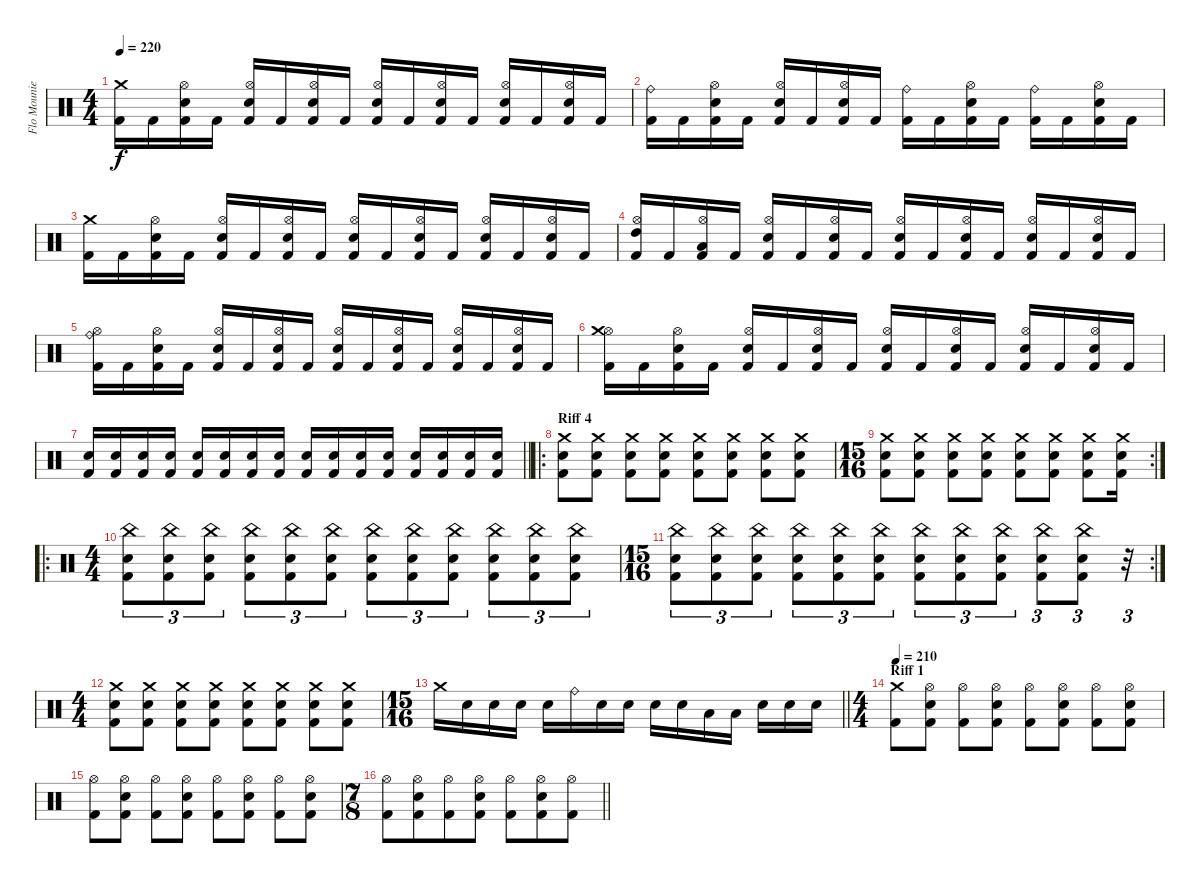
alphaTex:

\track ("Flo Mounier" "Flo Mounie") {instrument percussion}
\staff {score}
\articulation defaults
\ts (4 4)
\tempo 220
\clef neutral
\ks c
("Crash medium (hit)" "Kick (hit) 2").16{dy f} "Kick (hit) 2".16 ("Hi-Hat (open)" "Snare (hit) 2" "Kick (hit) 2").16 "Kick (hit) 2".16 ("Hi-Hat (open)" "Snare (hit) 2" "Kick (hit) 2").16 "Kick (hit) 2".16 ("Hi-Hat (open)" "Snare (hit) 2" "Kick (hit) 2").16 "Kick (hit) 2".16 ("Hi-Hat (open)" "Snare (hit) 2" "Kick (hit) 2").16 "Kick (hit) 2".16 ("Hi-Hat (open)" "Snare (hit) 2" "Kick (hit) 2").16 "Kick (hit) 2".16 ("Hi-Hat (open)" "Snare (hit) 2" "Kick (hit) 2").16 "Kick (hit) 2".16 ("Hi-Hat (open)" "Snare (hit) 2" "Kick (hit) 2").16 "Kick (hit) 2".16 |
("Ride (bell)" "Kick (hit) 2").16 "Kick (hit) 2".16 ("Hi-Hat (open)" "Snare (hit) 2" "Kick (hit) 2").16 "Kick (hit) 2".16 ("Hi-Hat (open)" "Snare (hit) 2" "Kick (hit) 2").16 "Kick (hit) 2".16 ("Hi-Hat (open)" "Snare (hit) 2" "Kick (hit) 2").16 "Kick (hit) 2".16 ("Ride (bell)" "Kick (hit) 2").16 "Kick (hit) 2".16 ("Hi-Hat (open)" "Snare (hit) 2" "Kick (hit) 2").16 "Kick (hit) 2".16 ("Ride (bell)" "Kick (hit) 2").16 "Kick (hit) 2".16 ("Hi-Hat (open)" "Snare (hit) 2" "Kick (hit) 2").16 "Kick (hit) 2".16 |
("Crash medium (hit)" "Kick (hit) 2").16 "Kick (hit) 2".16 ("Hi-Hat (open)" "Snare (hit) 2" "Kick (hit) 2").16 "Kick (hit) 2".16 ("Hi-Hat (open)" "Snare (hit) 2" "Kick (hit) 2").16 "Kick (hit) 2".16 ("Hi-Hat (open)" "Snare (hit) 2" "Kick (hit) 2").16 "Kick (hit) 2".16 ("Hi-Hat (open)" "Snare (hit) 2" "Kick (hit) 2").16 "Kick (hit) 2".16 ("Hi-Hat (open)" "Snare (hit) 2" "Kick (hit) 2").16 "Kick (hit) 2".16 ("Hi-Hat (open)" "Snare (hit) 2" "Kick (hit) 2").16 "Kick (hit) 2".16 ("Hi-Hat (open)" "Snare (hit) 2" "Kick (hit) 2").16 "Kick (hit) 2".16 |
("Hi-Hat (open)" "High Tom (hit)" "Kick (hit) 2").16 "Kick (hit) 2".16 ("Hi-Hat (open)" "Low Tom (hit)" "Kick (hit) 2").16 "Kick (hit) 2".16 ("Hi-Hat (open)" "Snare (hit) 2" "Kick (hit) 2").16 "Kick (hit) 2".16 ("Hi-Hat (open)" "Snare (hit) 2" "Kick (hit) 2").16 "Kick (hit) 2".16 ("Hi-Hat (open)" "Snare (hit) 2" "Kick (hit) 2").16 "Kick (hit) 2".16 ("Hi-Hat (open)" "Snare (hit) 2" "Kick (hit) 2").16 "Kick (hit) 2".16 ("Hi-Hat (open)" "Snare (hit) 2" "Kick (hit) 2").16 "Kick (hit) 2".16 ("Hi-Hat (open)" "Snare (hit) 2" "Kick (hit) 2").16 "Kick (hit) 2".16 |
("Hi-Hat (open)" "Ride (bell)" "Kick (hit) 2").16 "Kick (hit) 2".16 ("Hi-Hat (open)" "Snare (hit) 2" "Kick (hit) 2").16 "Kick (hit) 2".16 ("Hi-Hat (open)" "Snare (hit) 2" "Kick (hit) 2").16 "Kick (hit) 2".16 ("Hi-Hat (open)" "Snare (hit) 2" "Kick (hit) 2").16 "Kick (hit) 2".16 ("Hi-Hat (open)" "Snare (hit) 2" "Kick (hit) 2").16 "Kick (hit) 2".16 ("Hi-Hat (open)" "Snare (hit) 2" "Kick (hit) 2").16 "Kick (hit) 2".16 ("Hi-Hat (open)" "Snare (hit) 2" "Kick (hit) 2").16 "Kick (hit) 2".16 ("Hi-Hat (open)" "Snare (hit) 2" "Kick (hit) 2").16 "Kick (hit) 2".16 |
("Hi-Hat (open)" "Crash medium (hit)" "Kick (hit) 2").16 "Kick (hit) 2".16 ("Hi-Hat (open)" "Snare (hit) 2" "Kick (hit) 2").16 "Kick (hit) 2".16 ("Hi-Hat (open)" "Snare (hit) 2" "Kick (hit) 2").16 "Kick (hit) 2".16 ("Hi-Hat (open)" "Snare (hit) 2" "Kick (hit) 2").16 "Kick (hit) 2".16 ("Hi-Hat (open)" "Snare (hit) 2" "Kick (hit) 2").16 "Kick (hit) 2".16 ("Hi-Hat (open)" "Snare (hit) 2" "Kick (hit) 2").16 "Kick (hit) 2".16 ("Hi-Hat (open)" "Snare (hit) 2" "Kick (hit) 2").16 "Kick (hit) 2".16 ("Hi-Hat (open)" "Snare (hit) 2" "Kick (hit) 2").16 "Kick (hit) 2".16 |
\barLineRight lightlight
("Snare (hit) 2" "Kick (hit) 2").16 ("Snare (hit) 2" "Kick (hit) 2").16 ("Snare (hit) 2" "Kick (hit) 2").16 ("Snare (hit) 2" "Kick (hit) 2").16 ("Snare (hit) 2" "Kick (hit) 2").16 ("Snare (hit) 2" "Kick (hit) 2").16 ("Snare (hit) 2" "Kick (hit) 2").16 ("Snare (hit) 2" "Kick (hit) 2").16 ("Snare (hit) 2" "Kick (hit) 2").16 ("Snare (hit) 2" "Kick (hit) 2").16 ("Snare (hit) 2" "Kick (hit) 2").16 ("Snare (hit) 2" "Kick (hit) 2").16 ("Snare (hit) 2" "Kick (hit) 2").16 ("Snare (hit) 2" "Kick (hit) 2").16 ("Snare (hit) 2" "Kick (hit) 2").16 ("Snare (hit) 2" "Kick (hit) 2").16 |
\ro
\section ("" "Riff 4")
("Crash medium (hit)" "Snare (hit) 2" "Kick (hit) 2").8 ("Crash medium (hit)" "Snare (hit) 2" "Kick (hit) 2").8 ("Crash medium (hit)" "Snare (hit) 2" "Kick (hit) 2").8 ("Crash medium (hit)" "Snare (hit) 2" "Kick (hit) 2").8 ("Crash medium (hit)" "Snare (hit) 2" "Kick (hit) 2").8 ("Crash medium (hit)" "Snare (hit) 2" "Kick (hit) 2").8 ("Crash medium (hit)" "Snare (hit) 2" "Kick (hit) 2").8 ("Crash medium (hit)" "Snare (hit) 2" "Kick (hit) 2").8 |
\rc 2
\ts (15 16)
("Crash medium (hit)" "Snare (hit) 2" "Kick (hit) 2").8 ("Crash medium (hit)" "Snare (hit) 2" "Kick (hit) 2").8 ("Crash medium (hit)" "Snare (hit) 2" "Kick (hit) 2").8 ("Crash medium (hit)" "Snare (hit) 2" "Kick (hit) 2").8 ("Crash medium (hit)" "Snare (hit) 2" "Kick (hit) 2").8 ("Crash medium (hit)" "Snare (hit) 2" "Kick (hit) 2").8 ("Crash medium (hit)" "Snare (hit) 2" "Kick (hit) 2").8 ("Crash medium (hit)" "Snare (hit) 2" "Kick (hit) 2").16 |
\ro
\ts (4 4)
("China (hit)" "Snare (hit) 2" "Kick (hit) 2").8{tu (3 2)} ("China (hit)" "Snare (hit) 2" "Kick (hit) 2").8{tu (3 2)} ("China (hit)" "Snare (hit) 2" "Kick (hit) 2").8{tu (3 2)} ("China (hit)" "Snare (hit) 2" "Kick (hit) 2").8{tu (3 2)} ("China (hit)" "Snare (hit) 2" "Kick (hit) 2").8{tu (3 2)} ("China (hit)" "Snare (hit) 2" "Kick (hit) 2").8{tu (3 2)} ("China (hit)" "Snare (hit) 2" "Kick (hit) 2").8{tu (3 2)} ("China (hit)" "Snare (hit) 2" "Kick (hit) 2").8{tu (3 2)} ("China (hit)" "Snare (hit) 2" "Kick (hit) 2").8{tu (3 2)} ("China (hit)" "Snare (hit) 2" "Kick (hit) 2").8{tu (3 2)} ("China (hit)" "Snare (hit) 2" "Kick (hit) 2").8{tu (3 2)} ("China (hit)" "Snare (hit) 2" "Kick (hit) 2").8{tu (3 2)} |
\rc 2
\ts (15 16)
("China (hit)" "Snare (hit) 2" "Kick (hit) 2").8{tu (3 2)} ("China (hit)" "Snare (hit) 2" "Kick (hit) 2").8{tu (3 2)} ("China (hit)" "Snare (hit) 2" "Kick (hit) 2").8{tu (3 2)} ("China (hit)" "Snare (hit) 2" "Kick (hit) 2").8{tu (3 2)} ("China (hit)" "Snare (hit) 2" "Kick (hit) 2").8{tu (3 2)} ("China (hit)" "Snare (hit) 2" "Kick (hit) 2").8{tu (3 2)} ("China (hit)" "Snare (hit) 2" "Kick (hit) 2").8{tu (3 2)} ("China (hit)" "Snare (hit) 2" "Kick (hit) 2").8{tu (3 2)} ("China (hit)" "Snare (hit) 2" "Kick (hit) 2").8{tu (3 2)} ("China (hit)" "Snare (hit) 2" "Kick (hit) 2").8{tu (3 2)} ("China (hit)" "Snare (hit) 2" "Kick (hit) 2").8{tu (3 2)} r.32{tu (3 2)} |
\ts (4 4)
("Crash medium (hit)" "Snare (hit) 2" "Kick (hit) 2").8 ("Crash medium (hit)" "Snare (hit) 2" "Kick (hit) 2").8 ("Crash medium (hit)" "Snare (hit) 2" "Kick (hit) 2").8 ("Crash medium (hit)" "Snare (hit) 2" "Kick (hit) 2").8 ("Crash medium (hit)" "Snare (hit) 2" "Kick (hit) 2").8 ("Crash medium (hit)" "Snare (hit) 2" "Kick (hit) 2").8 ("Crash medium (hit)" "Snare (hit) 2" "Kick (hit) 2").8 ("Crash medium (hit)" "Snare (hit) 2" "Kick (hit) 2").8 |
\ts (15 16)
\barLineRight lightlight "Crash medium (hit)".16 "Snare (hit) 2".16 "Snare (hit) 2".16 "Snare (hit) 2".16 "Snare (hit) 2".16 "Ride (bell)".16 "Snare (hit) 2".16 "Snare (hit) 2".16 "Snare (hit) 2".16 "Snare (hit) 2".16 "Low Tom (hit)".16 "Low Tom (hit)".16 "Snare (hit) 2".16 "Snare (hit) 2".16 "Snare (hit) 2".16
|
\ts (4 4)
\section ("" "Riff 1")
\tempo 210
("Crash medium (hit)" "Kick (hit) 2").8 ("Hi-Hat (open)" "Snare (hit) 2" "Kick (hit) 2").8 ("Hi-Hat (open)" "Kick (hit) 2").8 ("Hi-Hat (open)" "Snare (hit) 2" "Kick (hit) 2").8 ("Hi-Hat (open)" "Kick (hit) 2").8 ("Hi-Hat (open)" "Snare (hit) 2" "Kick (hit) 2").8 ("Hi-Hat (open)" "Kick (hit) 2").8 ("Hi-Hat (open)" "Snare (hit) 2" "Kick (hit) 2").8 |
("Hi-Hat (open)" "Kick (hit) 2").8 ("Hi-Hat (open)" "Snare (hit) 2" "Kick (hit) 2").8 ("Hi-Hat (open)" "Kick (hit) 2").8 ("Hi-Hat (open)" "Snare (hit) 2" "Kick (hit) 2").8 ("Hi-Hat (open)" "Kick (hit) 2").8 ("Hi-Hat (open)" "Snare (hit) 2" "Kick (hit) 2").8 ("Hi-Hat (open)" "Kick (hit) 2").8 ("Hi-Hat (open)" "Snare (hit) 2" "Kick (hit) 2").8 |
\ts (7 8)
\barLineRight lightlight
("Hi-Hat (open)" "Kick (hit) 2").8 ("Hi-Hat (open)" "Snare (hit) 2" "Kick (hit) 2").8 ("Hi-Hat (open)" "Kick (hit) 2").8 ("Hi-Hat (open)" "Snare (hit) 2" "Kick (hit) 2").8 ("Hi-Hat (open)" "Kick (hit) 2").8 ("Hi-Hat (open)" "Snare (hit) 2" "Kick (hit) 2").8 ("Hi-Hat (open)" "Kick (hit) 2").8
